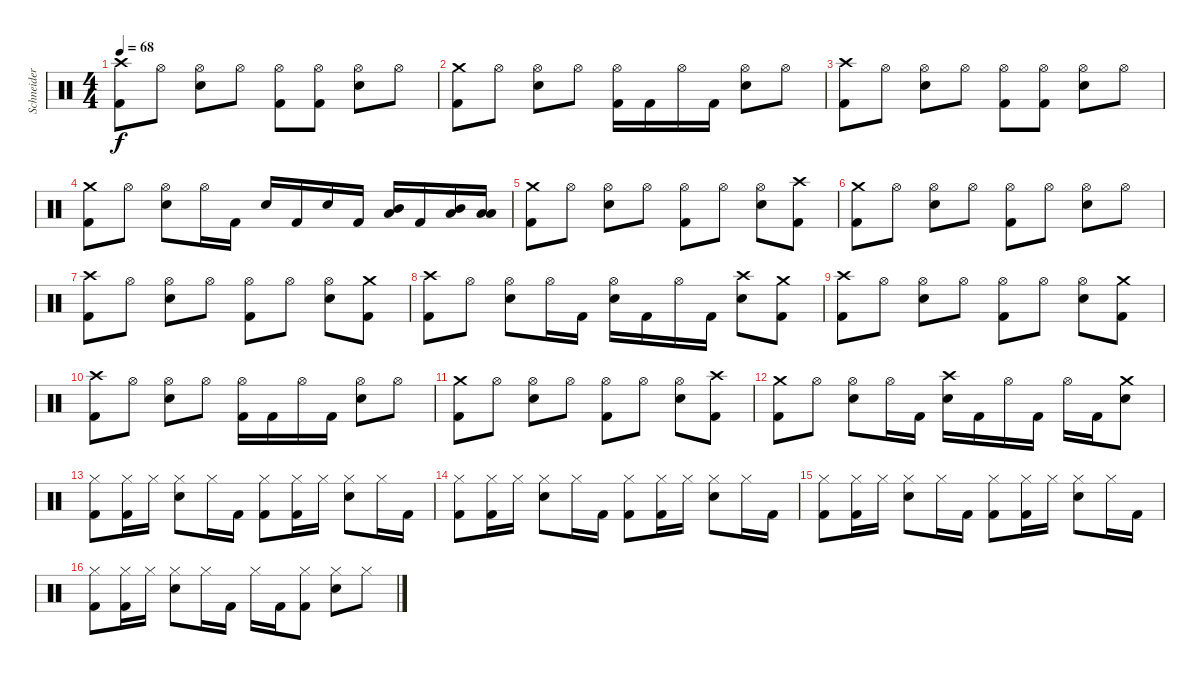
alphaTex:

\track ("Schneider" "Schneider") {instrument percussion}
\staff {score}
\articulation defaults
\ts (4 4)
\tempo 68
\clef neutral
\ks c
("Crash high (hit)" "Kick (hit) 2").8{dy f} "Hi-Hat (open)".8 ("Hi-Hat (open)" "Electric Snare (hit)").8 "Hi-Hat (open)".8 ("Hi-Hat (open)" "Kick (hit) 2").8 ("Hi-Hat (open)" "Kick (hit) 2").8 ("Hi-Hat (open)" "Electric Snare (hit)").8 "Hi-Hat (open)".8 |
("Crash medium (hit)" "Kick (hit) 2").8 "Hi-Hat (open)".8 ("Hi-Hat (open)" "Electric Snare (hit)").8 "Hi-Hat (open)".8 ("Hi-Hat (open)" "Kick (hit) 2").16 "Kick (hit) 2".16 "Hi-Hat (open)".16 "Kick (hit) 2".16 ("Hi-Hat (open)" "Electric Snare (hit)").8 "Hi-Hat (open)".8 |
("Crash high (hit)" "Kick (hit) 2").8 "Hi-Hat (open)".8 ("Hi-Hat (open)" "Electric Snare (hit)").8 "Hi-Hat (open)".8 ("Hi-Hat (open)" "Kick (hit) 2").8 ("Hi-Hat (open)" "Kick (hit) 2").8 ("Hi-Hat (open)" "Electric Snare (hit)").8 "Hi-Hat (open)".8 |
("Crash medium (hit)" "Kick (hit) 2").8 "Hi-Hat (open)".8 ("Hi-Hat (open)" "Electric Snare (hit)").8 "Hi-Hat (open)".16 "Kick (hit) 2".16 "Electric Snare (hit)".16 "Kick (hit) 2".16 "Electric Snare (hit)".16 "Kick (hit) 2".16 ("Low Tom (hit)" "Mid Tom (hit)").16 "Kick (hit) 2".16 ("Low Tom (hit)" "Mid Tom (hit)").16 ("Low Tom (hit)" "Low Tom (hit)").16 |
("Crash medium (hit)" "Kick (hit) 2").8 "Hi-Hat (open)".8 ("Hi-Hat (open)" "Electric Snare (hit)").8 "Hi-Hat (open)".8 ("Hi-Hat (open)" "Kick (hit) 2").8 "Hi-Hat (open)".8 ("Hi-Hat (open)" "Electric Snare (hit)").8 ("Crash high (hit)" "Kick (hit) 2").8 |
("Crash medium (hit)" "Kick (hit) 2").8 "Hi-Hat (open)".8 ("Hi-Hat (open)" "Electric Snare (hit)").8 "Hi-Hat (open)".8 ("Hi-Hat (open)" "Kick (hit) 2").8 "Hi-Hat (open)".8 ("Hi-Hat (open)" "Electric Snare (hit)").8 "Hi-Hat (open)".8 |
("Crash high (hit)" "Kick (hit) 2").8 "Hi-Hat (open)".8 ("Hi-Hat (open)" "Electric Snare (hit)").8 "Hi-Hat (open)".8 ("Hi-Hat (open)" "Kick (hit) 2").8 "Hi-Hat (open)".8 ("Hi-Hat (open)" "Electric Snare (hit)").8 ("Crash medium (hit)" "Kick (hit) 2").8 |
("Crash high (hit)" "Kick (hit) 2").8 "Hi-Hat (open)".8 ("Hi-Hat (open)" "Electric Snare (hit)").8 "Hi-Hat (open)".16 "Kick (hit) 2".16 ("Hi-Hat (open)" "Electric Snare (hit)").16 "Kick (hit) 2".16 "Hi-Hat (open)".16 "Kick (hit) 2".16 ("Crash high (hit)" "Electric Snare (hit)").8 ("Crash medium (hit)" "Kick (hit) 2").8 |
("Crash high (hit)" "Kick (hit) 2").8 "Hi-Hat (open)".8 ("Hi-Hat (open)" "Electric Snare (hit)").8 "Hi-Hat (open)".8 ("Hi-Hat (open)" "Kick (hit) 2").8 "Hi-Hat (open)".8 ("Hi-Hat (open)" "Electric Snare (hit)").8 ("Crash medium (hit)" "Kick (hit) 2").8 |
("Crash high (hit)" "Kick (hit) 2").8 "Hi-Hat (open)".8 ("Hi-Hat (open)" "Electric Snare (hit)").8 "Hi-Hat (open)".8 ("Hi-Hat (open)" "Kick (hit) 2").16 "Kick (hit) 2".16 "Hi-Hat (open)".16 "Kick (hit) 2".16 ("Hi-Hat (open)" "Electric Snare (hit)").8 "Hi-Hat (open)".8 |
("Crash medium (hit)" "Kick (hit) 2").8 "Hi-Hat (open)".8 ("Hi-Hat (open)" "Electric Snare (hit)").8 "Hi-Hat (open)".8 ("Hi-Hat (open)" "Kick (hit) 2").8 "Hi-Hat (open)".8 ("Hi-Hat (open)" "Electric Snare (hit)").8 ("Crash high (hit)" "Kick (hit) 2").8 |
("Crash medium (hit)" "Kick (hit) 2").8 "Hi-Hat (open)".8 ("Hi-Hat (open)" "Electric Snare (hit)").8 "Hi-Hat (open)".16 "Kick (hit) 2".16 ("Crash high (hit)" "Electric Snare (hit)").16 "Kick (hit) 2".16 "Hi-Hat (open)".16 "Kick (hit) 2".16 "Hi-Hat (open)".16 "Kick (hit) 2".16 ("Crash medium (hit)" "Electric Snare (hit)").8 |
("Hi-Hat (closed)" "Kick (hit) 2").8 ("Hi-Hat (closed)" "Kick (hit) 2").16 "Hi-Hat (closed)".16 ("Hi-Hat (closed)" "Electric Snare (hit)").8 "Hi-Hat (closed)".16 "Kick (hit) 2".16 ("Hi-Hat (closed)" "Kick (hit) 2").8 ("Hi-Hat (closed)" "Kick (hit) 2").16 "Hi-Hat (closed)".16 ("Hi-Hat (closed)" "Electric Snare (hit)").8 "Hi-Hat (closed)".16 "Kick (hit) 2".16 |
("Hi-Hat (closed)" "Kick (hit) 2").8 ("Hi-Hat (closed)" "Kick (hit) 2").16 "Hi-Hat (closed)".16 ("Hi-Hat (closed)" "Electric Snare (hit)").8 "Hi-Hat (closed)".16 "Kick (hit) 2".16 ("Hi-Hat (closed)" "Kick (hit) 2").8 ("Hi-Hat (closed)" "Kick (hit) 2").16 "Hi-Hat (closed)".16 ("Hi-Hat (closed)" "Electric Snare (hit)").8 "Hi-Hat (closed)".16 "Kick (hit) 2".16 |
("Hi-Hat (closed)" "Kick (hit) 2").8 ("Hi-Hat (closed)" "Kick (hit) 2").16 "Hi-Hat (closed)".16 ("Hi-Hat (closed)" "Electric Snare (hit)").8 "Hi-Hat (closed)".16 "Kick (hit) 2".16 ("Hi-Hat (closed)" "Kick (hit) 2").8 ("Hi-Hat (closed)" "Kick (hit) 2").16 "Hi-Hat (closed)".16 ("Hi-Hat (closed)" "Electric Snare (hit)").8 "Hi-Hat (closed)".16 "Kick (hit) 2".16 |
("Hi-Hat (closed)" "Kick (hit) 2").8 ("Hi-Hat (closed)" "Kick (hit) 2").16 "Hi-Hat (closed)".16 ("Hi-Hat (closed)" "Electric Snare (hit)").8 "Hi-Hat (closed)".16 "Kick (hit) 2".16 "Hi-Hat (closed)".16 "Kick (hit) 2".16 ("Hi-Hat (closed)" "Kick (hit) 2").8 ("Hi-Hat (closed)" "Electric Snare (hit)").8 "Hi-Hat (closed)".8
